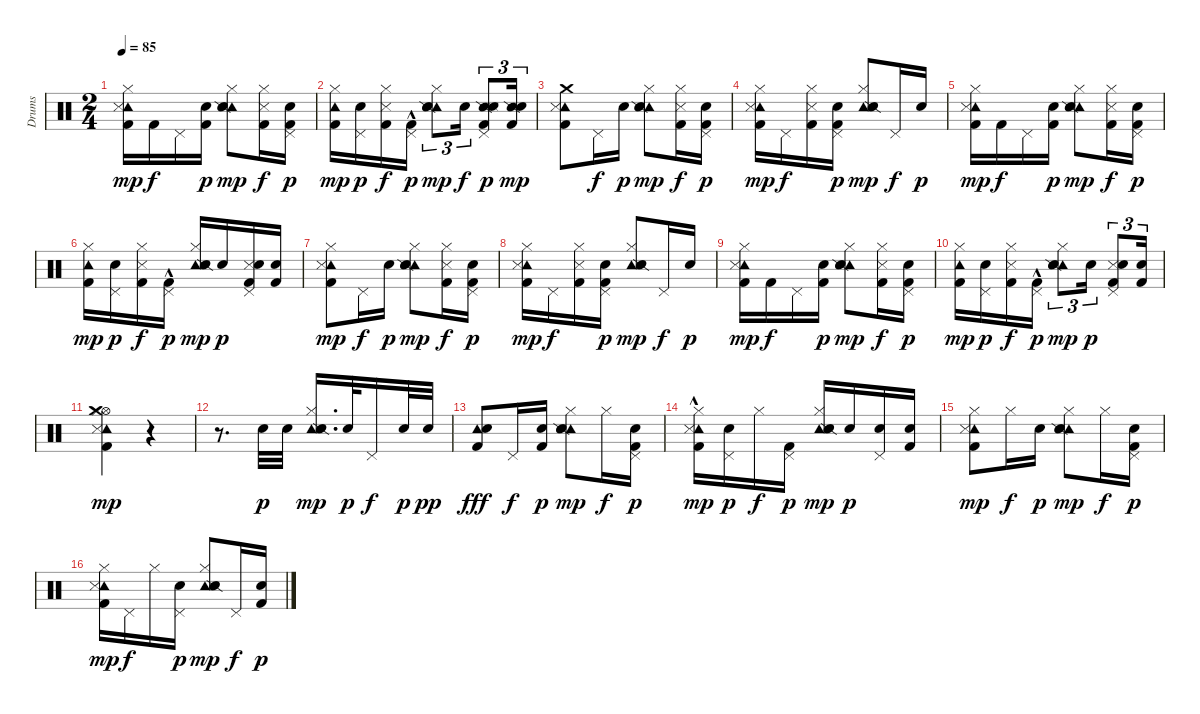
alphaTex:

\track ("Drums" "Drums") {instrument percussion}
\staff {score}
\articulation defaults
\ts (2 4)
\tempo 85
\clef neutral
\ks c
("Tambourine (hit)" "Metronome (hit)" "Kick (hit) 2" "Hi-Hat (closed)").16{dy mp} "Kick (hit) 2".16{dy f} "Pedal Hi-Hat (hit)".16 ("Electric Snare (hit)" "Kick (hit) 2").16{dy p} ("Tambourine (hit)" "Snare (hit) 2" "Snare (side stick) 2" "Hi-Hat (closed)").8{dy mp} ("Metronome (hit)" "Kick (hit) 2" "Hi-Hat (closed)").16{dy f} ("Kick (hit) 2" "Electric Snare (hit)" "Pedal Hi-Hat (hit)").16{dy p} |
("Kick (hit) 2" "Tambourine (hit)" "Hi-Hat (closed)").16{dy mp} ("Snare (hit) 2" "Pedal Hi-Hat (hit)").16{dy p} ("Metronome (hit)" "Kick (hit) 2" "Hi-Hat (closed)").16{dy f} ("Kick (hit) 2"{hac} "Pedal Hi-Hat (hit)").16{dy p} ("Tambourine (hit)" "Snare (hit) 2" "Snare (side stick) 2" "Hi-Hat (closed)").8{tu (3 2) dy mp} "Electric Snare (hit)".16{tu (3 2) dy f} ("Snare (side stick) 2" "Metronome (hit)" "Kick (hit) 2" "Electric Snare (hit)" "Pedal Hi-Hat (hit)").8{tu (3 2) dy p} ("Snare (side stick) 2" "Kick (hit) 2" "Electric Snare (hit)").16{tu (3 2) dy mp} |
("Crash medium (hit)" "Tambourine (hit)" "Metronome (hit)" "Kick (hit) 2").8 "Pedal Hi-Hat (hit)".16{dy f} "Electric Snare (hit)".16{dy p} ("Tambourine (hit)" "Snare (hit) 2" "Hi-Hat (closed)" "Snare (side stick) 2").8{dy mp} ("Hi-Hat (closed)" "Metronome (hit)" "Kick (hit) 2").16{dy f} ("Electric Snare (hit)" "Pedal Hi-Hat (hit)" "Kick (hit) 2").16{dy p} |
("Tambourine (hit)" "Metronome (hit)" "Kick (hit) 2" "Hi-Hat (closed)").16{dy mp} "Pedal Hi-Hat (hit)".16{dy f} ("Hi-Hat (closed)" "Metronome (hit)" "Kick (hit) 2").16 ("Electric Snare (hit)" "Pedal Hi-Hat (hit)" "Kick (hit) 2").16{dy p} ("Tambourine (hit)" "Snare (side stick) 2" "Snare (hit) 2" "Hi-Hat (closed)").8{dy mp} "Pedal Hi-Hat (hit)".16{dy f} "Electric Snare (hit)".16{dy p} |
("Tambourine (hit)" "Metronome (hit)" "Kick (hit) 2" "Hi-Hat (closed)").16{dy mp} "Kick (hit) 2".16{dy f} "Pedal Hi-Hat (hit)".16 ("Electric Snare (hit)" "Kick (hit) 2").16{dy p} ("Tambourine (hit)" "Snare (hit) 2" "Snare (side stick) 2" "Hi-Hat (closed)").8{dy mp} ("Metronome (hit)" "Kick (hit) 2" "Hi-Hat (closed)").16{dy f} ("Kick (hit) 2" "Electric Snare (hit)" "Pedal Hi-Hat (hit)").16{dy p} |
("Kick (hit) 2" "Tambourine (hit)" "Hi-Hat (closed)").16{dy mp} ("Snare (hit) 2" "Pedal Hi-Hat (hit)").16{dy p} ("Metronome (hit)" "Kick (hit) 2" "Hi-Hat (closed)").16{dy f} ("Kick (hit) 2"{hac} "Pedal Hi-Hat (hit)").16{dy p} ("Tambourine (hit)" "Snare (hit) 2" "Snare (side stick) 2" "Hi-Hat (closed)").16{dy mp} "Electric Snare (hit)".16{dy p} ("Metronome (hit)" "Kick (hit) 2" "Electric Snare (hit)" "Pedal Hi-Hat (hit)").16 ("Kick (hit) 2" "Electric Snare (hit)").16 |
("Tambourine (hit)" "Metronome (hit)" "Kick (hit) 2" "Hi-Hat (closed)").8{dy mp} "Pedal Hi-Hat (hit)".16{dy f} "Electric Snare (hit)".16{dy p} ("Tambourine (hit)" "Snare (hit) 2" "Hi-Hat (closed)" "Snare (side stick) 2").8{dy mp} ("Hi-Hat (closed)" "Metronome (hit)" "Kick (hit) 2").16{dy f} ("Electric Snare (hit)" "Pedal Hi-Hat (hit)" "Kick (hit) 2").16{dy p} |
("Tambourine (hit)" "Metronome (hit)" "Kick (hit) 2" "Hi-Hat (closed)").16{dy mp} "Pedal Hi-Hat (hit)".16{dy f} ("Hi-Hat (closed)" "Metronome (hit)" "Kick (hit) 2").16 ("Electric Snare (hit)" "Pedal Hi-Hat (hit)" "Kick (hit) 2").16{dy p} ("Tambourine (hit)" "Snare (side stick) 2" "Snare (hit) 2" "Hi-Hat (closed)").8{dy mp} "Pedal Hi-Hat (hit)".16{dy f} "Electric Snare (hit)".16{dy p} |
("Tambourine (hit)" "Metronome (hit)" "Kick (hit) 2" "Hi-Hat (closed)").16{dy mp} "Kick (hit) 2".16{dy f} "Pedal Hi-Hat (hit)".16 ("Electric Snare (hit)" "Kick (hit) 2").16{dy p} ("Tambourine (hit)" "Snare (hit) 2" "Snare (side stick) 2" "Hi-Hat (closed)").8{dy mp} ("Metronome (hit)" "Kick (hit) 2" "Hi-Hat (closed)").16{dy f} ("Kick (hit) 2" "Electric Snare (hit)" "Pedal Hi-Hat (hit)").16{dy p} |
("Kick (hit) 2" "Tambourine (hit)" "Hi-Hat (closed)").16{dy mp} ("Snare (hit) 2" "Pedal Hi-Hat (hit)").16{dy p} ("Metronome (hit)" "Kick (hit) 2" "Hi-Hat (closed)").16{dy f} ("Kick (hit) 2"{hac} "Pedal Hi-Hat (hit)").16{dy p} ("Tambourine (hit)" "Snare (hit) 2" "Snare (side stick) 2" "Hi-Hat (closed)").8{tu (3 2) dy mp} "Electric Snare (hit)".16{tu (3 2) dy p} ("Metronome (hit)" "Kick (hit) 2" "Electric Snare (hit)" "Pedal Hi-Hat (hit)").8{tu (3 2)} ("Kick (hit) 2" "Electric Snare (hit)").16{tu (3 2)} |
("Hi-Hat (open)" "Crash medium (hit)" "Tambourine (hit)" "Metronome (hit)" "Kick (hit) 2" "Hi-Hat (closed)").4{dy mp} r.4 |
r.8{d} "Snare (hit)".32{dy p} "Snare (hit)".32 ("Tambourine (hit)" "Snare (side stick) 2" "Snare (hit) 2" "Hi-Hat (closed)").16{d dy mp} "Snare (hit)".32{dy p} "Pedal Hi-Hat (hit)".16{dy f} "Electric Snare (hit)".32{dy p} "Snare (hit)".32{dy pp} |
("Tambourine (hit)" "Kick (hit) 2" "Snare (hit)").8{dy fff} "Pedal Hi-Hat (hit)".16{dy f} ("Electric Snare (hit)" "Kick (hit) 2").16{dy p} ("Tambourine (hit)" "Snare (hit) 2" "Snare (side stick) 2" "Hi-Hat (closed)").8{dy mp} "Hi-Hat (closed)".16{dy f} ("Electric Snare (hit)" "Kick (hit) 2" "Pedal Hi-Hat (hit)").16{dy p} |
("Tambourine (hit)" "Metronome (hit)" "Kick (hit) 2"{hac} "Hi-Hat (closed)").16{dy mp} ("Snare (hit) 2" "Pedal Hi-Hat (hit)").16{dy p} "Hi-Hat (closed)".16{dy f} ("Kick (hit) 2" "Pedal Hi-Hat (hit)").16{dy p} ("Tambourine (hit)" "Snare (hit) 2" "Snare (side stick) 2" "Hi-Hat (closed)").16{dy mp} "Electric Snare (hit)".16{dy p} ("Electric Snare (hit)" "Pedal Hi-Hat (hit)").16 ("Kick (hit) 2" "Electric Snare (hit)").16 |
("Tambourine (hit)" "Metronome (hit)" "Kick (hit) 2" "Hi-Hat (closed)").8{dy mp} "Hi-Hat (closed)".16{dy f} "Electric Snare (hit)".16{dy p} ("Tambourine (hit)" "Snare (hit) 2" "Hi-Hat (closed)" "Snare (side stick) 2").8{dy mp} "Hi-Hat (closed)".16{dy f} ("Kick (hit) 2" "Electric Snare (hit)" "Pedal Hi-Hat (hit)").16{dy p} |
("Tambourine (hit)" "Metronome (hit)" "Kick (hit) 2" "Hi-Hat (closed)").16{dy mp} "Pedal Hi-Hat (hit)".16{dy f} "Hi-Hat (closed)".16 ("Electric Snare (hit)" "Pedal Hi-Hat (hit)").16{dy p} ("Tambourine (hit)" "Snare (side stick) 2" "Snare (hit) 2" "Hi-Hat (closed)").8{dy mp} "Pedal Hi-Hat (hit)".16{dy f} ("Kick (hit) 2" "Electric Snare (hit)").16{dy p}
